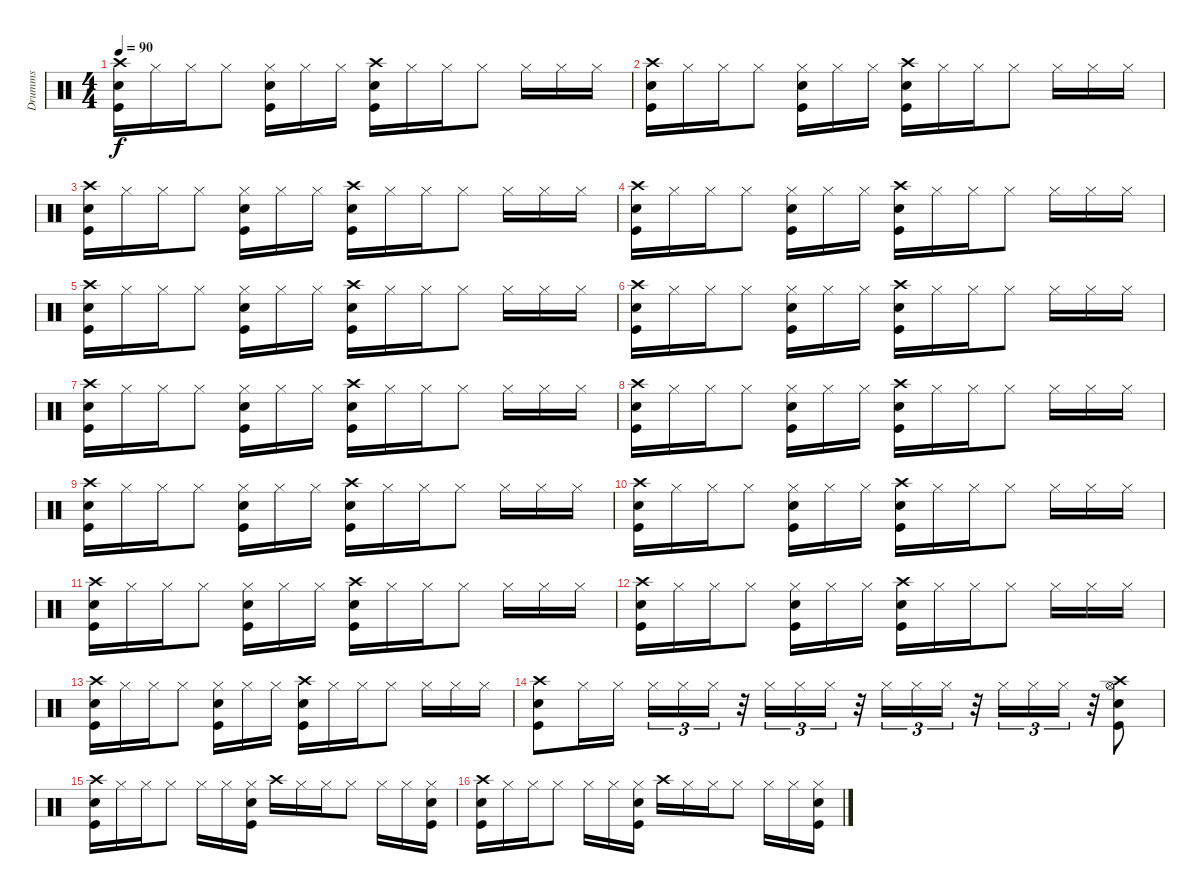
\track ("Drumms" "Drumms") {instrument percussion}
\staff {score}
\articulation defaults
\ts (4 4)
\tempo 90
\clef neutral
\ks c
("Crash high (hit)" "Snare (hit) 2" "Kick (hit)").16{dy f} "Hi-Hat (closed)".16 "Hi-Hat (closed)".16 "Hi-Hat (closed)".8 ("Hi-Hat (closed)" "Snare (hit) 2" "Kick (hit)").16 "Hi-Hat (closed)".16 "Hi-Hat (closed)".16 ("Crash high (hit)" "Snare (hit) 2" "Kick (hit)").16 "Hi-Hat (closed)".16 "Hi-Hat (closed)".16 "Hi-Hat (closed)".8 "Hi-Hat (closed)".16 "Hi-Hat (closed)".16 "Hi-Hat (closed)".16 |
("Crash high (hit)" "Snare (hit) 2" "Kick (hit)").16 "Hi-Hat (closed)".16 "Hi-Hat (closed)".16 "Hi-Hat (closed)".8 ("Hi-Hat (closed)" "Snare (hit) 2" "Kick (hit)").16 "Hi-Hat (closed)".16 "Hi-Hat (closed)".16 ("Crash high (hit)" "Snare (hit) 2" "Kick (hit)").16 "Hi-Hat (closed)".16 "Hi-Hat (closed)".16 "Hi-Hat (closed)".8 "Hi-Hat (closed)".16 "Hi-Hat (closed)".16 "Hi-Hat (closed)".16 |
("Crash high (hit)" "Snare (hit) 2" "Kick (hit)").16 "Hi-Hat (closed)".16 "Hi-Hat (closed)".16 "Hi-Hat (closed)".8 ("Hi-Hat (closed)" "Snare (hit) 2" "Kick (hit)").16 "Hi-Hat (closed)".16 "Hi-Hat (closed)".16 ("Crash high (hit)" "Snare (hit) 2" "Kick (hit)").16 "Hi-Hat (closed)".16 "Hi-Hat (closed)".16 "Hi-Hat (closed)".8 "Hi-Hat (closed)".16 "Hi-Hat (closed)".16 "Hi-Hat (closed)".16 |
("Crash high (hit)" "Snare (hit) 2" "Kick (hit)").16 "Hi-Hat (closed)".16 "Hi-Hat (closed)".16 "Hi-Hat (closed)".8 ("Hi-Hat (closed)" "Snare (hit) 2" "Kick (hit)").16 "Hi-Hat (closed)".16 "Hi-Hat (closed)".16 ("Crash high (hit)" "Snare (hit) 2" "Kick (hit)").16 "Hi-Hat (closed)".16 "Hi-Hat (closed)".16 "Hi-Hat (closed)".8 "Hi-Hat (closed)".16 "Hi-Hat (closed)".16 "Hi-Hat (closed)".16 |
("Crash high (hit)" "Snare (hit) 2" "Kick (hit)").16 "Hi-Hat (closed)".16 "Hi-Hat (closed)".16 "Hi-Hat (closed)".8 ("Hi-Hat (closed)" "Snare (hit) 2" "Kick (hit)").16 "Hi-Hat (closed)".16 "Hi-Hat (closed)".16 ("Crash high (hit)" "Snare (hit) 2" "Kick (hit)").16 "Hi-Hat (closed)".16 "Hi-Hat (closed)".16 "Hi-Hat (closed)".8 "Hi-Hat (closed)".16 "Hi-Hat (closed)".16 "Hi-Hat (closed)".16 |
("Crash high (hit)" "Snare (hit) 2" "Kick (hit)").16 "Hi-Hat (closed)".16 "Hi-Hat (closed)".16 "Hi-Hat (closed)".8 ("Hi-Hat (closed)" "Snare (hit) 2" "Kick (hit)").16 "Hi-Hat (closed)".16 "Hi-Hat (closed)".16 ("Crash high (hit)" "Snare (hit) 2" "Kick (hit)").16 "Hi-Hat (closed)".16 "Hi-Hat (closed)".16 "Hi-Hat (closed)".8 "Hi-Hat (closed)".16 "Hi-Hat (closed)".16 "Hi-Hat (closed)".16 |
("Crash high (hit)" "Snare (hit) 2" "Kick (hit)").16 "Hi-Hat (closed)".16 "Hi-Hat (closed)".16 "Hi-Hat (closed)".8 ("Hi-Hat (closed)" "Snare (hit) 2" "Kick (hit)").16 "Hi-Hat (closed)".16 "Hi-Hat (closed)".16 ("Crash high (hit)" "Snare (hit) 2" "Kick (hit)").16 "Hi-Hat (closed)".16 "Hi-Hat (closed)".16 "Hi-Hat (closed)".8 "Hi-Hat (closed)".16 "Hi-Hat (closed)".16 "Hi-Hat (closed)".16 |
("Crash high (hit)" "Snare (hit) 2" "Kick (hit)").16 "Hi-Hat (closed)".16 "Hi-Hat (closed)".16 "Hi-Hat (closed)".8 ("Hi-Hat (closed)" "Snare (hit) 2" "Kick (hit)").16 "Hi-Hat (closed)".16 "Hi-Hat (closed)".16 ("Crash high (hit)" "Snare (hit) 2" "Kick (hit)").16 "Hi-Hat (closed)".16 "Hi-Hat (closed)".16 "Hi-Hat (closed)".8 "Hi-Hat (closed)".16 "Hi-Hat (closed)".16 "Hi-Hat (closed)".16 |
("Crash high (hit)" "Snare (hit) 2" "Kick (hit)").16 "Hi-Hat (closed)".16 "Hi-Hat (closed)".16 "Hi-Hat (closed)".8 ("Hi-Hat (closed)" "Snare (hit) 2" "Kick (hit)").16 "Hi-Hat (closed)".16 "Hi-Hat (closed)".16 ("Crash high (hit)" "Snare (hit) 2" "Kick (hit)").16 "Hi-Hat (closed)".16 "Hi-Hat (closed)".16 "Hi-Hat (closed)".8 "Hi-Hat (closed)".16 "Hi-Hat (closed)".16 "Hi-Hat (closed)".16 |
("Crash high (hit)" "Snare (hit) 2" "Kick (hit)").16 "Hi-Hat (closed)".16 "Hi-Hat (closed)".16 "Hi-Hat (closed)".8 ("Hi-Hat (closed)" "Snare (hit) 2" "Kick (hit)").16 "Hi-Hat (closed)".16 "Hi-Hat (closed)".16 ("Crash high (hit)" "Snare (hit) 2" "Kick (hit)").16 "Hi-Hat (closed)".16 "Hi-Hat (closed)".16 "Hi-Hat (closed)".8 "Hi-Hat (closed)".16 "Hi-Hat (closed)".16 "Hi-Hat (closed)".16 |
("Crash high (hit)" "Snare (hit) 2" "Kick (hit)").16 "Hi-Hat (closed)".16 "Hi-Hat (closed)".16 "Hi-Hat (closed)".8 ("Hi-Hat (closed)" "Snare (hit) 2" "Kick (hit)").16 "Hi-Hat (closed)".16 "Hi-Hat (closed)".16 ("Crash high (hit)" "Snare (hit) 2" "Kick (hit)").16 "Hi-Hat (closed)".16 "Hi-Hat (closed)".16 "Hi-Hat (closed)".8 "Hi-Hat (closed)".16 "Hi-Hat (closed)".16 "Hi-Hat (closed)".16 |
("Crash high (hit)" "Snare (hit) 2" "Kick (hit)").16 "Hi-Hat (closed)".16 "Hi-Hat (closed)".16 "Hi-Hat (closed)".8 ("Hi-Hat (closed)" "Snare (hit) 2" "Kick (hit)").16 "Hi-Hat (closed)".16 "Hi-Hat (closed)".16 ("Crash high (hit)" "Snare (hit) 2" "Kick (hit)").16 "Hi-Hat (closed)".16 "Hi-Hat (closed)".16 "Hi-Hat (closed)".8 "Hi-Hat (closed)".16 "Hi-Hat (closed)".16 "Hi-Hat (closed)".16 |
("Crash high (hit)" "Snare (hit) 2" "Kick (hit)").16 "Hi-Hat (closed)".16 "Hi-Hat (closed)".16 "Hi-Hat (closed)".8 ("Hi-Hat (closed)" "Snare (hit) 2" "Kick (hit)").16 "Hi-Hat (closed)".16 "Hi-Hat (closed)".16 ("Crash high (hit)" "Snare (hit) 2" "Kick (hit)").16 "Hi-Hat (closed)".16 "Hi-Hat (closed)".16 "Hi-Hat (closed)".8 "Hi-Hat (closed)".16 "Hi-Hat (closed)".16 "Hi-Hat (closed)".16 |
("Crash high (hit)" "Snare (hit) 2" "Kick (hit)").8 "Hi-Hat (closed)".16 "Hi-Hat (closed)".16 "Hi-Hat (closed)".16{tu (3 2)} "Hi-Hat (closed)".16{tu (3 2)} "Hi-Hat (closed)".16{tu (3 2)} r.32 "Hi-Hat (closed)".16{tu (3 2)} "Hi-Hat (closed)".16{tu (3 2)} "Hi-Hat (closed)".16{tu (3 2)} r.32 "Hi-Hat (closed)".16{tu (3 2)} "Hi-Hat (closed)".16{tu (3 2)} "Hi-Hat (closed)".16{tu (3 2)} r.32 "Hi-Hat (closed)".16{tu (3 2)} "Hi-Hat (closed)".16{tu (3 2)} "Hi-Hat (closed)".16{tu (3 2)} r.32 ("Crash high (hit)" "Snare (hit) 2" "Kick (hit)" "Hi-Hat (open)").8 |
("Crash high (hit)" "Snare (hit) 2" "Kick (hit)").16 "Hi-Hat (closed)".16 "Hi-Hat (closed)".16 "Hi-Hat (closed)".8 "Hi-Hat (closed)".16 "Hi-Hat (closed)".16 ("Hi-Hat (closed)" "Snare (hit) 2" "Kick (hit)").16 "Crash high (hit)".16 "Hi-Hat (closed)".16 "Hi-Hat (closed)".16 "Hi-Hat (closed)".8 "Hi-Hat (closed)".16 "Hi-Hat (closed)".16 ("Hi-Hat (closed)" "Snare (hit) 2" "Kick (hit)").16 |
("Crash high (hit)" "Snare (hit) 2" "Kick (hit)").16 "Hi-Hat (closed)".16 "Hi-Hat (closed)".16 "Hi-Hat (closed)".8 "Hi-Hat (closed)".16 "Hi-Hat (closed)".16 ("Hi-Hat (closed)" "Snare (hit) 2" "Kick (hit)").16 "Crash high (hit)".16 "Hi-Hat (closed)".16 "Hi-Hat (closed)".16 "Hi-Hat (closed)".8 "Hi-Hat (closed)".16 "Hi-Hat (closed)".16 ("Hi-Hat (closed)" "Snare (hit) 2" "Kick (hit)").16
